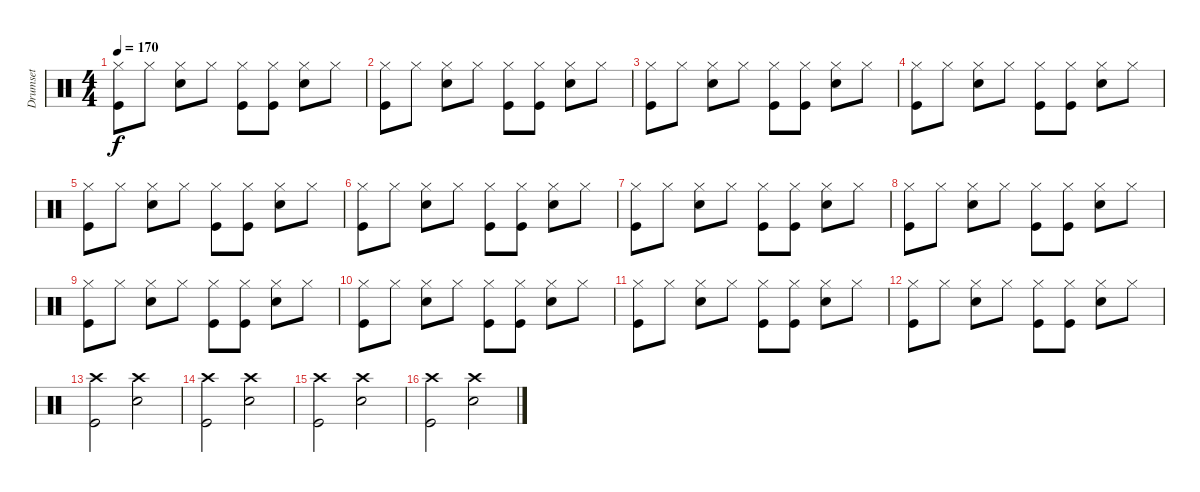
\track ("Drumset" "Drumset") {instrument percussion}
\staff {score}
\articulation defaults
\ts (4 4)
\tempo 170
\clef neutral
\ks c
("Hi-Hat (closed)" "Kick (hit)").8{dy f} "Hi-Hat (closed)".8 ("Hi-Hat (closed)" "Snare (hit) 2").8 "Hi-Hat (closed)".8 ("Hi-Hat (closed)" "Kick (hit)").8 ("Hi-Hat (closed)" "Kick (hit)").8 ("Hi-Hat (closed)" "Snare (hit) 2").8 "Hi-Hat (closed)".8 |
("Hi-Hat (closed)" "Kick (hit)").8 "Hi-Hat (closed)".8 ("Hi-Hat (closed)" "Snare (hit) 2").8 "Hi-Hat (closed)".8 ("Hi-Hat (closed)" "Kick (hit)").8 ("Hi-Hat (closed)" "Kick (hit)").8 ("Hi-Hat (closed)" "Snare (hit) 2").8 "Hi-Hat (closed)".8 |
("Hi-Hat (closed)" "Kick (hit)").8 "Hi-Hat (closed)".8 ("Hi-Hat (closed)" "Snare (hit) 2").8 "Hi-Hat (closed)".8 ("Hi-Hat (closed)" "Kick (hit)").8 ("Hi-Hat (closed)" "Kick (hit)").8 ("Hi-Hat (closed)" "Snare (hit) 2").8 "Hi-Hat (closed)".8 |
("Hi-Hat (closed)" "Kick (hit)").8 "Hi-Hat (closed)".8 ("Hi-Hat (closed)" "Snare (hit) 2").8 "Hi-Hat (closed)".8 ("Hi-Hat (closed)" "Kick (hit)").8 ("Hi-Hat (closed)" "Kick (hit)").8 ("Hi-Hat (closed)" "Snare (hit) 2").8 "Hi-Hat (closed)".8 |
("Hi-Hat (closed)" "Kick (hit)").8 "Hi-Hat (closed)".8 ("Hi-Hat (closed)" "Snare (hit) 2").8 "Hi-Hat (closed)".8 ("Hi-Hat (closed)" "Kick (hit)").8 ("Hi-Hat (closed)" "Kick (hit)").8 ("Hi-Hat (closed)" "Snare (hit) 2").8 "Hi-Hat (closed)".8 |
("Hi-Hat (closed)" "Kick (hit)").8 "Hi-Hat (closed)".8 ("Hi-Hat (closed)" "Snare (hit) 2").8 "Hi-Hat (closed)".8 ("Hi-Hat (closed)" "Kick (hit)").8 ("Hi-Hat (closed)" "Kick (hit)").8 ("Hi-Hat (closed)" "Snare (hit) 2").8 "Hi-Hat (closed)".8 |
("Hi-Hat (closed)" "Kick (hit)").8 "Hi-Hat (closed)".8 ("Hi-Hat (closed)" "Snare (hit) 2").8 "Hi-Hat (closed)".8 ("Hi-Hat (closed)" "Kick (hit)").8 ("Hi-Hat (closed)" "Kick (hit)").8 ("Hi-Hat (closed)" "Snare (hit) 2").8 "Hi-Hat (closed)".8 |
("Hi-Hat (closed)" "Kick (hit)").8 "Hi-Hat (closed)".8 ("Hi-Hat (closed)" "Snare (hit) 2").8 "Hi-Hat (closed)".8 ("Hi-Hat (closed)" "Kick (hit)").8 ("Hi-Hat (closed)" "Kick (hit)").8 ("Hi-Hat (closed)" "Snare (hit) 2").8 "Hi-Hat (closed)".8 |
("Hi-Hat (closed)" "Kick (hit)").8 "Hi-Hat (closed)".8 ("Hi-Hat (closed)" "Snare (hit) 2").8 "Hi-Hat (closed)".8 ("Hi-Hat (closed)" "Kick (hit)").8 ("Hi-Hat (closed)" "Kick (hit)").8 ("Hi-Hat (closed)" "Snare (hit) 2").8 "Hi-Hat (closed)".8 |
("Hi-Hat (closed)" "Kick (hit)").8 "Hi-Hat (closed)".8 ("Hi-Hat (closed)" "Snare (hit) 2").8 "Hi-Hat (closed)".8 ("Hi-Hat (closed)" "Kick (hit)").8 ("Hi-Hat (closed)" "Kick (hit)").8 ("Hi-Hat (closed)" "Snare (hit) 2").8 "Hi-Hat (closed)".8 |
("Hi-Hat (closed)" "Kick (hit)").8 "Hi-Hat (closed)".8 ("Hi-Hat (closed)" "Snare (hit) 2").8 "Hi-Hat (closed)".8 ("Hi-Hat (closed)" "Kick (hit)").8 ("Hi-Hat (closed)" "Kick (hit)").8 ("Hi-Hat (closed)" "Snare (hit) 2").8 "Hi-Hat (closed)".8 |
("Hi-Hat (closed)" "Kick (hit)").8 "Hi-Hat (closed)".8 ("Hi-Hat (closed)" "Snare (hit) 2").8 "Hi-Hat (closed)".8 ("Hi-Hat (closed)" "Kick (hit)").8 ("Hi-Hat (closed)" "Kick (hit)").8 ("Hi-Hat (closed)" "Snare (hit) 2").8 "Hi-Hat (closed)".8 |
("Crash high (hit)" "Kick (hit)").2 ("Crash high (hit)" "Snare (hit) 2").2 |
("Crash high (hit)" "Kick (hit)").2 ("Crash high (hit)" "Snare (hit) 2").2 |
("Crash high (hit)" "Kick (hit)").2 ("Crash high (hit)" "Snare (hit) 2").2 |
("Crash high (hit)" "Kick (hit)").2 ("Crash high (hit)" "Snare (hit) 2").2
